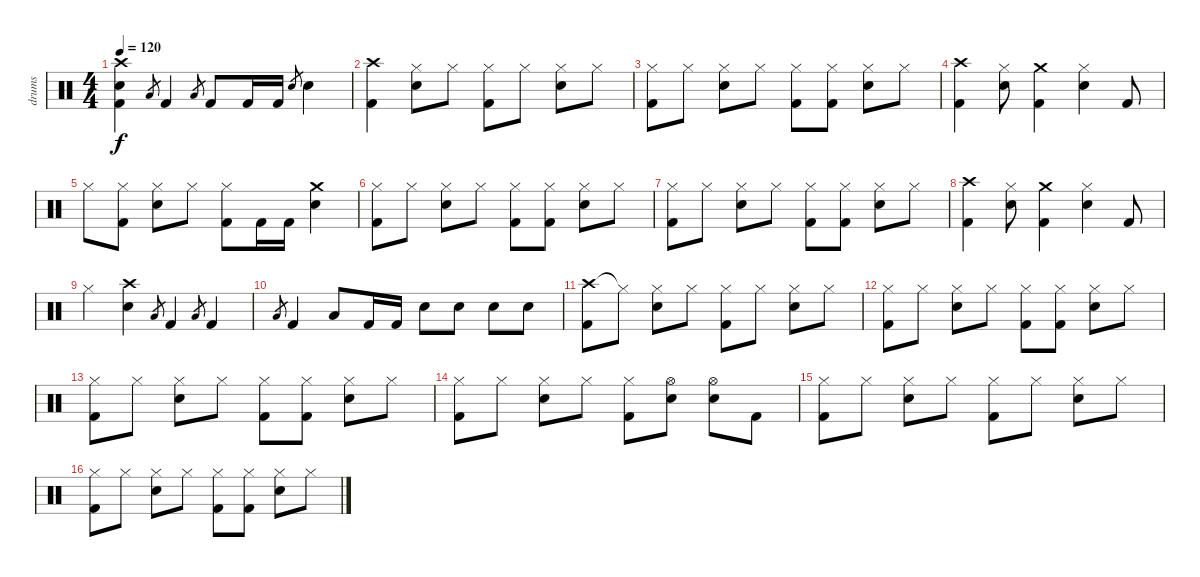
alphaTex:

\track ("drums" "drums") {instrument percussion}
\staff {score}
\articulation defaults
\ts (4 4)
\tempo 120
\clef neutral
\ks c
("Crash high (hit)" "Electric Snare (hit)" "Kick (hit) 2").4{dy f} "Low Floor Tom (hit)".8{gr} "Kick (hit) 2".4 "Low Floor Tom (hit)".8{gr} "Kick (hit) 2".8 "Kick (hit) 2".16 "Kick (hit) 2".16 "Electric Snare (hit)".8{gr} "Electric Snare (hit)".4 |
("Crash high (hit)" "Kick (hit) 2").4 ("Hi-Hat (closed)" "Electric Snare (hit)").8 "Hi-Hat (closed)".8 ("Hi-Hat (closed)" "Kick (hit) 2").8 "Hi-Hat (closed)".8 ("Hi-Hat (closed)" "Electric Snare (hit)").8 "Hi-Hat (closed)".8 |
("Hi-Hat (closed)" "Kick (hit) 2").8 "Hi-Hat (closed)".8 ("Hi-Hat (closed)" "Electric Snare (hit)").8 "Hi-Hat (closed)".8 ("Hi-Hat (closed)" "Kick (hit) 2").8 ("Hi-Hat (closed)" "Kick (hit) 2").8 ("Hi-Hat (closed)" "Electric Snare (hit)").8 "Hi-Hat (closed)".8 |
("Crash high (hit)" "Kick (hit) 2").4 ("Hi-Hat (closed)" "Electric Snare (hit)").8 ("Crash medium (hit)" "Kick (hit) 2").4 ("Hi-Hat (closed)" "Electric Snare (hit)").4 "Kick (hit) 2".8 |
"Hi-Hat (closed)".8 ("Hi-Hat (closed)" "Kick (hit) 2").8 ("Hi-Hat (closed)" "Electric Snare (hit)").8 "Hi-Hat (closed)".8 ("Hi-Hat (closed)" "Kick (hit) 2").8 "Kick (hit) 2".16 "Kick (hit) 2".16 ("Crash medium (hit)" "Electric Snare (hit)").4 |
("Hi-Hat (closed)" "Kick (hit) 2").8 "Hi-Hat (closed)".8 ("Hi-Hat (closed)" "Electric Snare (hit)").8 "Hi-Hat (closed)".8 ("Hi-Hat (closed)" "Kick (hit) 2").8 ("Hi-Hat (closed)" "Kick (hit) 2").8 ("Hi-Hat (closed)" "Electric Snare (hit)").8 "Hi-Hat (closed)".8 |
("Hi-Hat (closed)" "Kick (hit) 2").8 "Hi-Hat (closed)".8 ("Hi-Hat (closed)" "Electric Snare (hit)").8 "Hi-Hat (closed)".8 ("Hi-Hat (closed)" "Kick (hit) 2").8 ("Hi-Hat (closed)" "Kick (hit) 2").8 ("Hi-Hat (closed)" "Electric Snare (hit)").8 "Hi-Hat (closed)".8 |
("Crash high (hit)" "Kick (hit) 2").4 ("Hi-Hat (closed)" "Electric Snare (hit)").8 ("Crash medium (hit)" "Kick (hit) 2").4 ("Hi-Hat (closed)" "Electric Snare (hit)").4 "Kick (hit) 2".8 |
"Hi-Hat (closed)".4 ("Crash high (hit)" "Electric Snare (hit)").4 "Low Floor Tom (hit)".8{gr} "Kick (hit) 2".4 "Low Floor Tom (hit)".8{gr} "Kick (hit) 2".4 |
"Low Floor Tom (hit)".8{gr} "Kick (hit) 2".4 "Low Floor Tom (hit)".8 "Kick (hit) 2".16 "Kick (hit) 2".16 "Electric Snare (hit)".8 "Electric Snare (hit)".8 "Electric Snare (hit)".8 "Electric Snare (hit)".8 |
("Crash high (hit)" "Kick (hit) 2").8 "Hi-Hat (closed)"{t}.8 ("Hi-Hat (closed)" "Electric Snare (hit)").8 "Hi-Hat (closed)".8 ("Hi-Hat (closed)" "Kick (hit) 2").8 "Hi-Hat (closed)".8 ("Hi-Hat (closed)" "Electric Snare (hit)").8 "Hi-Hat (closed)".8 |
("Hi-Hat (closed)" "Kick (hit) 2").8 "Hi-Hat (closed)".8 ("Hi-Hat (closed)" "Electric Snare (hit)").8 "Hi-Hat (closed)".8 ("Hi-Hat (closed)" "Kick (hit) 2").8 ("Hi-Hat (closed)" "Kick (hit) 2").8 ("Hi-Hat (closed)" "Electric Snare (hit)").8 "Hi-Hat (closed)".8 |
("Hi-Hat (closed)" "Kick (hit) 2").8 "Hi-Hat (closed)".8 ("Hi-Hat (closed)" "Electric Snare (hit)").8 "Hi-Hat (closed)".8 ("Hi-Hat (closed)" "Kick (hit) 2").8 ("Hi-Hat (closed)" "Kick (hit) 2").8 ("Hi-Hat (closed)" "Electric Snare (hit)").8 "Hi-Hat (closed)".8 |
("Hi-Hat (closed)" "Kick (hit) 2").8 "Hi-Hat (closed)".8 ("Hi-Hat (closed)" "Electric Snare (hit)").8 "Hi-Hat (closed)".8 ("Hi-Hat (closed)" "Kick (hit) 2").8 ("Hi-Hat (open)" "Electric Snare (hit)").8 ("Hi-Hat (open)" "Electric Snare (hit)").8 "Kick (hit) 2".8 |
("Hi-Hat (closed)" "Kick (hit) 2").8 "Hi-Hat (closed)".8 ("Hi-Hat (closed)" "Electric Snare (hit)").8 "Hi-Hat (closed)".8 ("Hi-Hat (closed)" "Kick (hit) 2").8 "Hi-Hat (closed)".8 ("Hi-Hat (closed)" "Electric Snare (hit)").8 "Hi-Hat (closed)".8 |
("Hi-Hat (closed)" "Kick (hit) 2").8 "Hi-Hat (closed)".8 ("Hi-Hat (closed)" "Electric Snare (hit)").8 "Hi-Hat (closed)".8 ("Hi-Hat (closed)" "Kick (hit) 2").8 ("Hi-Hat (closed)" "Kick (hit) 2").8 ("Hi-Hat (closed)" "Electric Snare (hit)").8 "Hi-Hat (closed)".8
